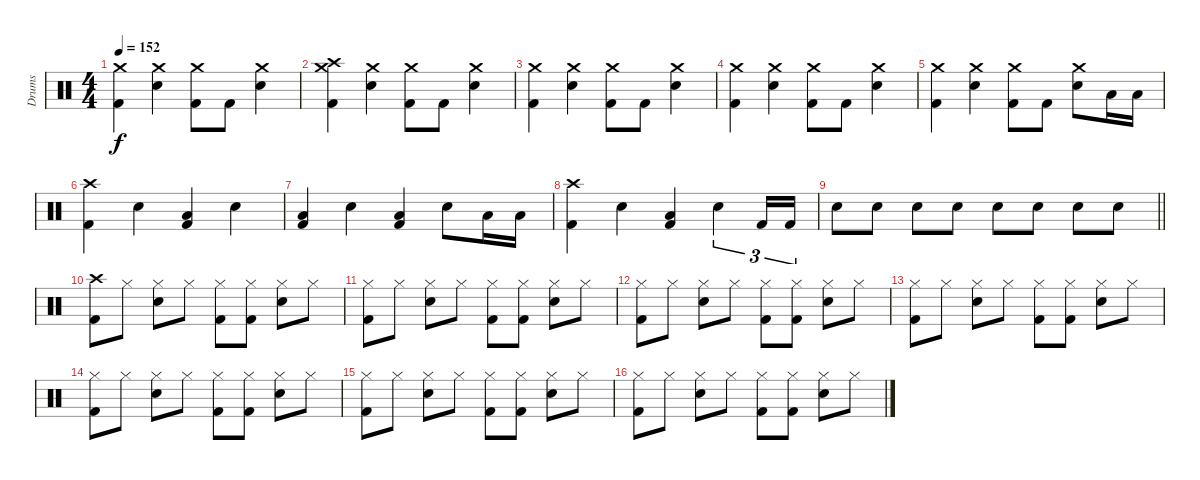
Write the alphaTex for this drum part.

\track ("Drums" "Drums") {instrument percussion}
\staff {score}
\articulation defaults
\ts (4 4)
\tempo 152
\clef neutral
\ks c
("Crash medium (hit)" "Kick (hit) 2").4{dy f} ("Crash medium (hit)" "Snare (hit) 2").4 ("Crash medium (hit)" "Kick (hit) 2").8 "Kick (hit) 2".8 ("Crash medium (hit)" "Snare (hit) 2").4 |
("Crash high (hit)" "Crash medium (hit)" "Kick (hit) 2").4 ("Crash medium (hit)" "Snare (hit) 2").4 ("Crash medium (hit)" "Kick (hit) 2").8 "Kick (hit) 2".8 ("Crash medium (hit)" "Snare (hit) 2").4 |
("Crash medium (hit)" "Kick (hit) 2").4 ("Crash medium (hit)" "Snare (hit) 2").4 ("Crash medium (hit)" "Kick (hit) 2").8 "Kick (hit) 2".8 ("Crash medium (hit)" "Snare (hit) 2").4 |
("Crash medium (hit)" "Kick (hit) 2").4 ("Crash medium (hit)" "Snare (hit) 2").4 ("Crash medium (hit)" "Kick (hit) 2").8 "Kick (hit) 2".8 ("Crash medium (hit)" "Snare (hit) 2").4 |
("Crash medium (hit)" "Kick (hit) 2").4 ("Crash medium (hit)" "Snare (hit) 2").4 ("Crash medium (hit)" "Kick (hit) 2").8 "Kick (hit) 2".8 ("Crash medium (hit)" "Snare (hit) 2").8 "Low Tom (hit)".16 "Low Tom (hit)".16 |
("Crash high (hit)" "Kick (hit) 2").4 "Snare (hit) 2".4 ("Low Floor Tom (hit)" "Kick (hit) 2").4 "Snare (hit) 2".4 |
("Low Floor Tom (hit)" "Kick (hit) 2").4 "Snare (hit) 2".4 ("Low Floor Tom (hit)" "Kick (hit) 2").4 "Snare (hit) 2".8 "Low Tom (hit)".16 "Low Tom (hit)".16 |
("Crash high (hit)" "Kick (hit) 2").4 "Snare (hit) 2".4 ("Low Floor Tom (hit)" "Kick (hit) 2").4 "Snare (hit) 2".4{tu (3 2)} "Kick (hit) 2".16{tu (3 2)} "Kick (hit) 2".16{tu (3 2)} |
\barLineRight lightlight "Snare (hit) 2".8 "Snare (hit) 2".8 "Snare (hit) 2".8 "Snare (hit) 2".8 "Snare (hit) 2".8 "Snare (hit) 2".8 "Snare (hit) 2".8 "Snare (hit) 2".8
|
("Crash high (hit)" "Kick (hit) 2").8 "Hi-Hat (closed)".8 ("Hi-Hat (closed)" "Snare (hit) 2").8 "Hi-Hat (closed)".8 ("Hi-Hat (closed)" "Kick (hit) 2").8 ("Hi-Hat (closed)" "Kick (hit) 2").8 ("Hi-Hat (closed)" "Snare (hit) 2").8 "Hi-Hat (closed)".8 |
("Hi-Hat (closed)" "Kick (hit) 2").8 "Hi-Hat (closed)".8 ("Hi-Hat (closed)" "Snare (hit) 2").8 "Hi-Hat (closed)".8 ("Hi-Hat (closed)" "Kick (hit) 2").8 ("Hi-Hat (closed)" "Kick (hit) 2").8 ("Hi-Hat (closed)" "Snare (hit) 2").8 "Hi-Hat (closed)".8 |
("Hi-Hat (closed)" "Kick (hit) 2").8 "Hi-Hat (closed)".8 ("Hi-Hat (closed)" "Snare (hit) 2").8 "Hi-Hat (closed)".8 ("Hi-Hat (closed)" "Kick (hit) 2").8 ("Hi-Hat (closed)" "Kick (hit) 2").8 ("Hi-Hat (closed)" "Snare (hit) 2").8 "Hi-Hat (closed)".8 |
("Hi-Hat (closed)" "Kick (hit) 2").8 "Hi-Hat (closed)".8 ("Hi-Hat (closed)" "Snare (hit) 2").8 "Hi-Hat (closed)".8 ("Hi-Hat (closed)" "Kick (hit) 2").8 ("Hi-Hat (closed)" "Kick (hit) 2").8 ("Hi-Hat (closed)" "Snare (hit) 2").8 "Hi-Hat (closed)".8 |
("Hi-Hat (closed)" "Kick (hit) 2").8 "Hi-Hat (closed)".8 ("Hi-Hat (closed)" "Snare (hit) 2").8 "Hi-Hat (closed)".8 ("Hi-Hat (closed)" "Kick (hit) 2").8 ("Hi-Hat (closed)" "Kick (hit) 2").8 ("Hi-Hat (closed)" "Snare (hit) 2").8 "Hi-Hat (closed)".8 |
("Hi-Hat (closed)" "Kick (hit) 2").8 "Hi-Hat (closed)".8 ("Hi-Hat (closed)" "Snare (hit) 2").8 "Hi-Hat (closed)".8 ("Hi-Hat (closed)" "Kick (hit) 2").8 ("Hi-Hat (closed)" "Kick (hit) 2").8 ("Hi-Hat (closed)" "Snare (hit) 2").8 "Hi-Hat (closed)".8 |
("Hi-Hat (closed)" "Kick (hit) 2").8 "Hi-Hat (closed)".8 ("Hi-Hat (closed)" "Snare (hit) 2").8 "Hi-Hat (closed)".8 ("Hi-Hat (closed)" "Kick (hit) 2").8 ("Hi-Hat (closed)" "Kick (hit) 2").8 ("Hi-Hat (closed)" "Snare (hit) 2").8 "Hi-Hat (closed)".8
